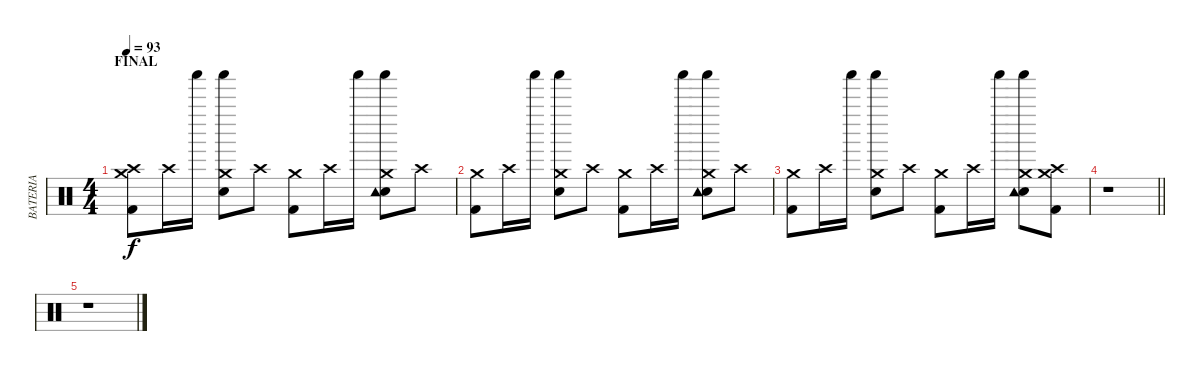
\track ("BATERIA" "BATERIA") {instrument percussion}
\staff {score}
\articulation defaults
\ts (4 4)
\section ("" "FINAL")
\tempo 93
\clef neutral
\ks c
("Kick (hit) 2" "Crash high (hit)" "Crash medium (hit)").8{dy f} "Crash high (hit)".16 "Shaker (hit)".16 ("Electric Snare (hit)" "Shaker (hit)" "Crash medium (hit)").8 "Crash high (hit)".8 ("Kick (hit) 2" "Crash medium (hit)").8 "Crash high (hit)".16 "Shaker (hit)".16 ("Electric Snare (hit)" "Tambourine (hit)" "Shaker (hit)" "Crash medium (hit)").8 "Crash high (hit)".8 |
("Kick (hit) 2" "Crash medium (hit)").8 "Crash high (hit)".16 "Shaker (hit)".16 ("Electric Snare (hit)" "Shaker (hit)" "Crash medium (hit)").8 "Crash high (hit)".8 ("Kick (hit) 2" "Crash medium (hit)").8 "Crash high (hit)".16 "Shaker (hit)".16 ("Electric Snare (hit)" "Tambourine (hit)" "Shaker (hit)" "Crash medium (hit)").8 "Crash high (hit)".8 |
("Kick (hit) 2" "Crash medium (hit)").8 "Crash high (hit)".16 "Shaker (hit)".16 ("Electric Snare (hit)" "Shaker (hit)" "Crash medium (hit)").8 "Crash high (hit)".8 ("Kick (hit) 2" "Crash medium (hit)").8 "Crash high (hit)".16 "Shaker (hit)".16 ("Electric Snare (hit)" "Tambourine (hit)" "Shaker (hit)" "Crash medium (hit)").8 ("Kick (hit) 2" "Crash medium (hit)" "Crash high (hit)").8 |
\barLineRight lightlight
r.1 |
r.1
